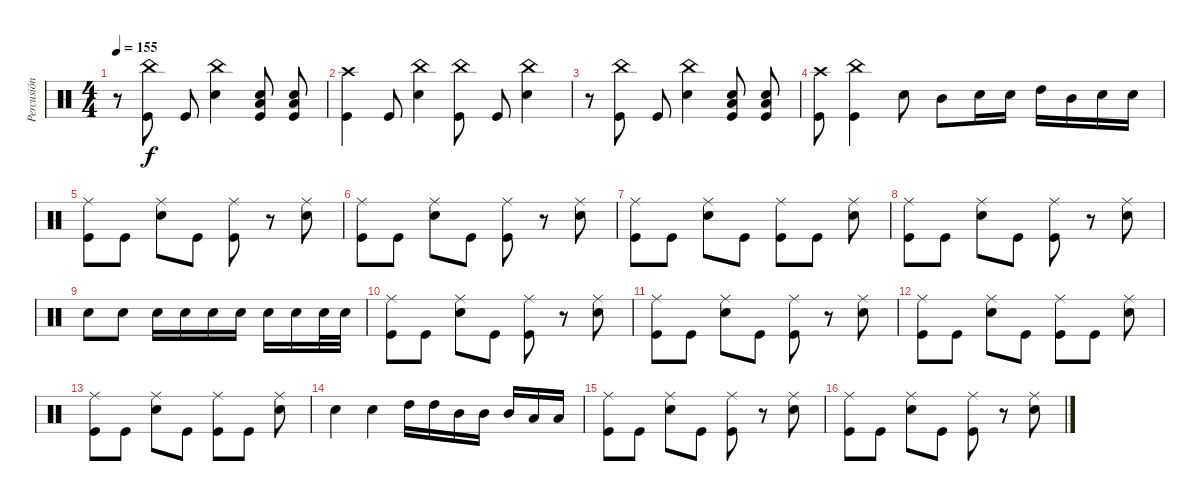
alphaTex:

\track ("Percusión" "Percusión") {instrument percussion}
\staff {score}
\articulation defaults
\ts (4 4)
\tempo 155
\clef neutral
\ks c
r.8{dy f} ("Kick (hit)" "China (hit)").8 "Kick (hit)".8 ("Snare (hit) 2" "China (hit)").4 ("Snare (hit) 2" "Kick (hit)" "Low Floor Tom (hit)").8 ("Snare (hit) 2" "Kick (hit)" "Low Floor Tom (hit)").8 |
("Kick (hit)" "Crash high (hit)").4 "Kick (hit)".8 ("Snare (hit) 2" "China (hit)").4 ("Kick (hit)" "China (hit)").8 "Kick (hit)".8 ("Snare (hit) 2" "China (hit)").4 |
r.8 ("Kick (hit)" "China (hit)").8 "Kick (hit)".8 ("Snare (hit) 2" "China (hit)").4 ("Snare (hit) 2" "Kick (hit)" "Low Floor Tom (hit)").8 ("Snare (hit) 2" "Kick (hit)" "Low Floor Tom (hit)").8 |
("Kick (hit)" "Crash high (hit)").8 ("Kick (hit)" "China (hit)").4 "Snare (hit) 2".8 "Mid Tom (hit)".8 "Snare (hit) 2".16 "Snare (hit) 2".16 "High Tom (hit)".16 "Mid Tom (hit)".16 "Snare (hit) 2".16 "Snare (hit) 2".16 |
("Kick (hit)" "Ride (middle)").8 "Kick (hit)".8 ("Snare (hit) 2" "Ride (middle)").8 "Kick (hit)".8 ("Kick (hit)" "Ride (middle)").8 r.8 ("Snare (hit) 2" "Ride (middle)").8 |
("Kick (hit)" "Ride (middle)").8 "Kick (hit)".8 ("Snare (hit) 2" "Ride (middle)").8 "Kick (hit)".8 ("Kick (hit)" "Ride (middle)").8 r.8 ("Snare (hit) 2" "Ride (middle)").8 |
("Kick (hit)" "Ride (middle)").8 "Kick (hit)".8 ("Snare (hit) 2" "Ride (middle)").8 "Kick (hit)".8 ("Kick (hit)" "Ride (middle)").8 "Kick (hit)".8 ("Snare (hit) 2" "Ride (middle)").8 |
("Kick (hit)" "Ride (middle)").8 "Kick (hit)".8 ("Snare (hit) 2" "Ride (middle)").8 "Kick (hit)".8 ("Kick (hit)" "Ride (middle)").8 r.8 ("Snare (hit) 2" "Ride (middle)").8 |
"Snare (hit) 2".8 "Snare (hit) 2".8 "Snare (hit) 2".16 "Snare (hit) 2".16 "Snare (hit) 2".16 "Snare (hit) 2".16 "Snare (hit) 2".16 "Snare (hit) 2".16 "Snare (hit) 2".32 "Snare (hit) 2".32 |
("Kick (hit)" "Ride (middle)").8 "Kick (hit)".8 ("Snare (hit) 2" "Ride (middle)").8 "Kick (hit)".8 ("Kick (hit)" "Ride (middle)").8 r.8 ("Snare (hit) 2" "Ride (middle)").8 |
("Kick (hit)" "Ride (middle)").8 "Kick (hit)".8 ("Snare (hit) 2" "Ride (middle)").8 "Kick (hit)".8 ("Kick (hit)" "Ride (middle)").8 r.8 ("Snare (hit) 2" "Ride (middle)").8 |
("Kick (hit)" "Ride (middle)").8 "Kick (hit)".8 ("Snare (hit) 2" "Ride (middle)").8 "Kick (hit)".8 ("Kick (hit)" "Ride (middle)").8 "Kick (hit)".8 ("Snare (hit) 2" "Ride (middle)").8 |
("Kick (hit)" "Ride (middle)").8 "Kick (hit)".8 ("Snare (hit) 2" "Ride (middle)").8 "Kick (hit)".8 ("Kick (hit)" "Ride (middle)").8 "Kick (hit)".8 ("Snare (hit) 2" "Ride (middle)").8 |
"Snare (hit) 2".4 "Snare (hit) 2".4 "High Tom (hit)".16 "High Tom (hit)".16 "Mid Tom (hit)".16 "Mid Tom (hit)".16 "Mid Tom (hit)".16 "Low Tom (hit)".16 "Low Tom (hit)".16 |
("Kick (hit)" "Ride (middle)").8 "Kick (hit)".8 ("Snare (hit) 2" "Ride (middle)").8 "Kick (hit)".8 ("Kick (hit)" "Ride (middle)").8 r.8 ("Snare (hit) 2" "Ride (middle)").8 |
("Kick (hit)" "Ride (middle)").8 "Kick (hit)".8 ("Snare (hit) 2" "Ride (middle)").8 "Kick (hit)".8 ("Kick (hit)" "Ride (middle)").8 r.8 ("Snare (hit) 2" "Ride (middle)").8
